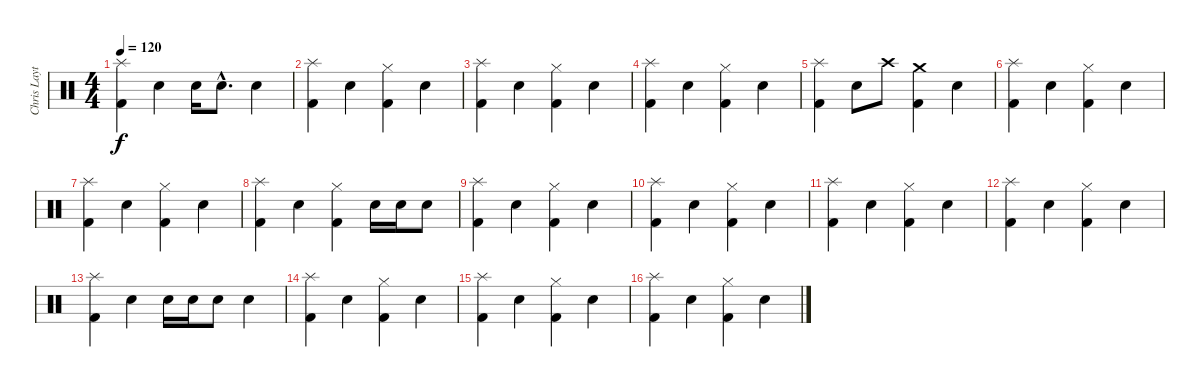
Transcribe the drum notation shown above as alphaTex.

\track ("Chris Layton" "Chris Layt") {instrument percussion}
\staff {score}
\articulation defaults
\ts (4 4)
\tempo 120
\clef neutral
\ks c
("Kick (hit) 2" "Splash (hit)").4{dy f} "Snare (hit) 2".4 "Snare (hit) 2".16 "Snare (hit) 2"{hac}.8{d} "Snare (hit) 2".4 |
("Kick (hit) 2" "Splash (hit)").4 "Snare (hit) 2".4 ("Kick (hit) 2" "Hi-Hat (closed)").4 "Snare (hit) 2".4 |
("Kick (hit) 2" "Splash (hit)").4 "Snare (hit) 2".4 ("Kick (hit) 2" "Hi-Hat (closed)").4 "Snare (hit) 2".4 |
("Kick (hit) 2" "Splash (hit)").4 "Snare (hit) 2".4 ("Kick (hit) 2" "Hi-Hat (closed)").4 "Snare (hit) 2".4 |
("Kick (hit) 2" "Splash (hit)").4 "Snare (hit) 2".8 "Crash high (hit)".8 ("Kick (hit) 2" "Crash medium (hit)").4 "Snare (hit) 2".4 |
("Kick (hit) 2" "Splash (hit)").4 "Snare (hit) 2".4 ("Kick (hit) 2" "Hi-Hat (closed)").4 "Snare (hit) 2".4 |
("Kick (hit) 2" "Splash (hit)").4 "Snare (hit) 2".4 ("Kick (hit) 2" "Hi-Hat (closed)").4 "Snare (hit) 2".4 |
("Kick (hit) 2" "Splash (hit)").4 "Snare (hit) 2".4 ("Kick (hit) 2" "Hi-Hat (closed)").4 "Snare (hit) 2".16 "Snare (hit) 2".16 "Snare (hit) 2".8 |
("Kick (hit) 2" "Splash (hit)").4 "Snare (hit) 2".4 ("Kick (hit) 2" "Hi-Hat (closed)").4 "Snare (hit) 2".4 |
("Kick (hit) 2" "Splash (hit)").4 "Snare (hit) 2".4 ("Kick (hit) 2" "Hi-Hat (closed)").4 "Snare (hit) 2".4 |
("Kick (hit) 2" "Splash (hit)").4 "Snare (hit) 2".4 ("Kick (hit) 2" "Hi-Hat (closed)").4 "Snare (hit) 2".4 |
("Kick (hit) 2" "Splash (hit)").4 "Snare (hit) 2".4 ("Kick (hit) 2" "Hi-Hat (closed)").4 "Snare (hit) 2".4 |
("Kick (hit) 2" "Splash (hit)").4 "Snare (hit) 2".4 "Snare (hit) 2".16 "Snare (hit) 2".16 "Snare (hit) 2".8 "Snare (hit) 2".4 |
("Kick (hit) 2" "Splash (hit)").4 "Snare (hit) 2".4 ("Kick (hit) 2" "Hi-Hat (closed)").4 "Snare (hit) 2".4 |
("Kick (hit) 2" "Splash (hit)").4 "Snare (hit) 2".4 ("Kick (hit) 2" "Hi-Hat (closed)").4 "Snare (hit) 2".4 |
("Kick (hit) 2" "Splash (hit)").4 "Snare (hit) 2".4 ("Kick (hit) 2" "Hi-Hat (closed)").4 "Snare (hit) 2".4
